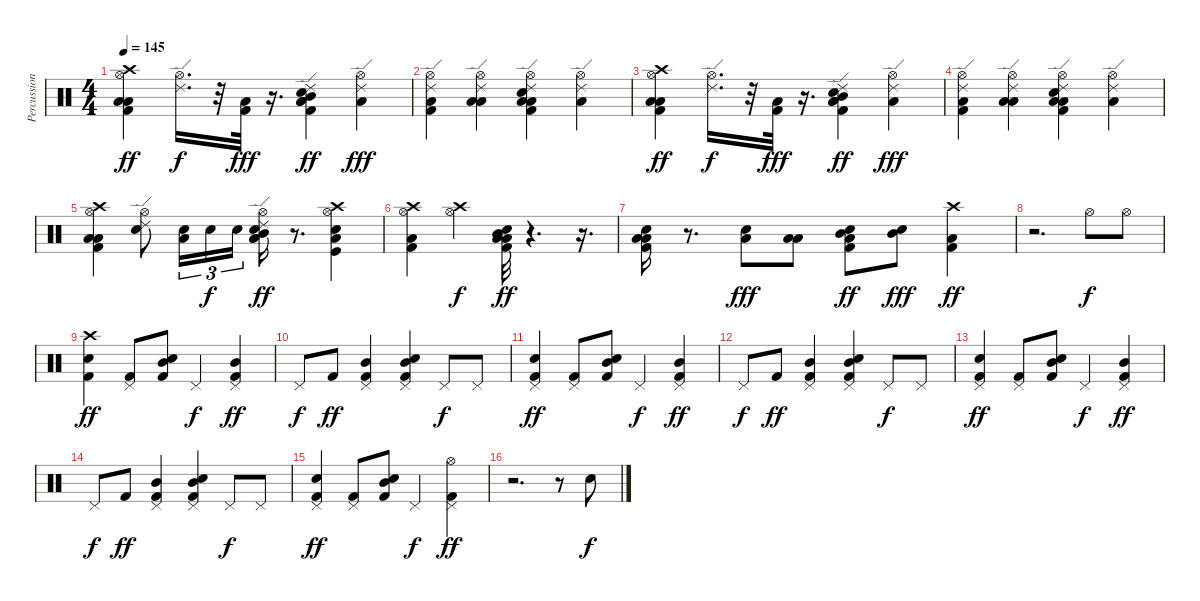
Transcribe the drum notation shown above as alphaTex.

\track ("Percussion" "Percussion") {instrument percussion}
\staff {score}
\articulation defaults
\ts (4 4)
\tempo 145
\clef neutral
\ks c
("Crash high (hit)" "Hi-Hat (open)" "Low Tom (hit)" "Low Floor Tom (hit)" "Kick (hit) 2").4{dy ff} ("Ride (edge) 2" "Hi-Hat (open)").16{d dy f} r.32 ("Low Floor Tom (hit)" "Kick (hit) 2").32{dy fff} r.16{d} ("Ride (edge) 2" "Mid Tom (hit)" "Low Tom (hit)" "Snare (hit) 2" "Low Floor Tom (hit)" "Kick (hit) 2").4{dy ff} ("Ride (edge) 2" "Hi-Hat (open)" "Low Floor Tom (hit)").4{dy fff} |
("Ride (edge) 2" "Hi-Hat (open)" "Low Floor Tom (hit)" "Kick (hit) 2").4 ("Ride (edge) 2" "Hi-Hat (open)" "Low Tom (hit)" "Low Floor Tom (hit)").4 ("Ride (edge) 2" "Hi-Hat (open)" "Snare (hit) 2" "Low Tom (hit)" "Low Floor Tom (hit)" "Kick (hit) 2").4 ("Ride (edge) 2" "Hi-Hat (open)" "Low Floor Tom (hit)").4 |
("Crash high (hit)" "Hi-Hat (open)" "Low Tom (hit)" "Low Floor Tom (hit)" "Kick (hit) 2").4{dy ff} ("Ride (edge) 2" "Hi-Hat (open)").16{d dy f} r.32 ("Low Floor Tom (hit)" "Kick (hit) 2").32{dy fff} r.16{d} ("Ride (edge) 2" "Mid Tom (hit)" "Low Tom (hit)" "Snare (hit) 2" "Low Floor Tom (hit)" "Kick (hit) 2").4{dy ff} ("Ride (edge) 2" "Hi-Hat (open)" "Low Floor Tom (hit)").4{dy fff} |
("Ride (edge) 2" "Hi-Hat (open)" "Low Floor Tom (hit)" "Kick (hit) 2").4 ("Ride (edge) 2" "Hi-Hat (open)" "Low Tom (hit)" "Low Floor Tom (hit)").4 ("Ride (edge) 2" "Hi-Hat (open)" "Snare (hit) 2" "Low Tom (hit)" "Low Floor Tom (hit)" "Kick (hit) 2").4 ("Ride (edge) 2" "Hi-Hat (open)" "Low Floor Tom (hit)").4 |
("Crash high (hit)" "Hi-Hat (open)" "Low Tom (hit)" "Low Floor Tom (hit)" "Kick (hit) 2").4 ("Ride (edge) 2" "Hi-Hat (open)" "Snare (hit) 2").8 ("Snare (hit) 2" "Low Floor Tom (hit)").16{tu (3 2)} "Snare (hit) 2".16{tu (3 2) dy f} "Snare (hit) 2".16{tu (3 2)} ("Ride (edge) 2" "Mid Tom (hit)" "Low Tom (hit)" "Snare (hit) 2" "Low Floor Tom (hit)" "Hi-Hat (open)").16{dy ff} r.8{d} ("Crash high (hit)" "Hi-Hat (open)" "Snare (hit) 2" "Low Floor Tom (hit)" "Kick (hit)").4 |
("Crash high (hit)" "Hi-Hat (open)" "Low Floor Tom (hit)" "Kick (hit) 2").4 ("Crash high (hit)" "Hi-Hat (open)").4{dy f} ("Mid Tom (hit)" "Snare (hit) 2" "Low Tom (hit)" "Low Floor Tom (hit)" "Kick (hit) 2").32{dy ff} r.4{d} r.16{d} |
("Low Tom (hit)" "Snare (hit) 2" "Low Floor Tom (hit)" "Kick (hit) 2").16 r.8{d} ("Snare (hit) 2" "Low Tom (hit)").8{dy fff} ("Low Tom (hit)" "Low Floor Tom (hit)").8 ("Mid Tom (hit)" "Snare (hit) 2" "Low Floor Tom (hit)" "Kick (hit) 2").8{dy ff} ("Mid Tom (hit)" "Snare (hit) 2").8{dy fff} ("Crash high (hit)" "Low Floor Tom (hit)" "Kick (hit) 2").4{dy ff} |
r.2{d} "Hi-Hat (open)".8{dy f} "Hi-Hat (open)".8 |
("Crash high (hit)" "Snare (hit) 2" "Kick (hit) 2").4{dy ff} ("Pedal Hi-Hat (hit)" "Kick (hit) 2").8 ("Mid Tom (hit)" "Snare (hit) 2" "Kick (hit) 2").8 "Pedal Hi-Hat (hit)".4{dy f} ("Pedal Hi-Hat (hit)" "Mid Tom (hit)" "Kick (hit) 2").4{dy ff} |
"Pedal Hi-Hat (hit)".8{dy f} "Kick (hit) 2".8{dy ff} ("Pedal Hi-Hat (hit)" "Mid Tom (hit)" "Kick (hit) 2").4 ("Pedal Hi-Hat (hit)" "Mid Tom (hit)" "Snare (hit) 2" "Kick (hit) 2").4 "Pedal Hi-Hat (hit)".8{dy f} "Pedal Hi-Hat (hit)".8 |
("Pedal Hi-Hat (hit)" "Snare (hit) 2" "Kick (hit) 2").4{dy ff} ("Pedal Hi-Hat (hit)" "Kick (hit) 2").8 ("Mid Tom (hit)" "Snare (hit) 2" "Kick (hit) 2").8 "Pedal Hi-Hat (hit)".4{dy f} ("Pedal Hi-Hat (hit)" "Mid Tom (hit)" "Kick (hit) 2").4{dy ff} |
"Pedal Hi-Hat (hit)".8{dy f} "Kick (hit) 2".8{dy ff} ("Pedal Hi-Hat (hit)" "Mid Tom (hit)" "Kick (hit) 2").4 ("Pedal Hi-Hat (hit)" "Mid Tom (hit)" "Snare (hit) 2" "Kick (hit) 2").4 "Pedal Hi-Hat (hit)".8{dy f} "Pedal Hi-Hat (hit)".8 |
("Pedal Hi-Hat (hit)" "Snare (hit) 2" "Kick (hit) 2").4{dy ff} ("Pedal Hi-Hat (hit)" "Kick (hit) 2").8 ("Mid Tom (hit)" "Snare (hit) 2" "Kick (hit) 2").8 "Pedal Hi-Hat (hit)".4{dy f} ("Pedal Hi-Hat (hit)" "Mid Tom (hit)" "Kick (hit) 2").4{dy ff} |
"Pedal Hi-Hat (hit)".8{dy f} "Kick (hit) 2".8{dy ff} ("Pedal Hi-Hat (hit)" "Mid Tom (hit)" "Kick (hit) 2").4 ("Pedal Hi-Hat (hit)" "Mid Tom (hit)" "Snare (hit) 2" "Kick (hit) 2").4 "Pedal Hi-Hat (hit)".8{dy f} "Pedal Hi-Hat (hit)".8 |
("Pedal Hi-Hat (hit)" "Snare (hit) 2" "Kick (hit) 2").4{dy ff} ("Pedal Hi-Hat (hit)" "Kick (hit) 2").8 ("Mid Tom (hit)" "Snare (hit) 2" "Kick (hit) 2").8 "Pedal Hi-Hat (hit)".4{dy f} ("Pedal Hi-Hat (hit)" "Hi-Hat (open)" "Kick (hit) 2").4{dy ff} |
r.2{d} r.8 "Snare (hit) 2".8{dy f}
